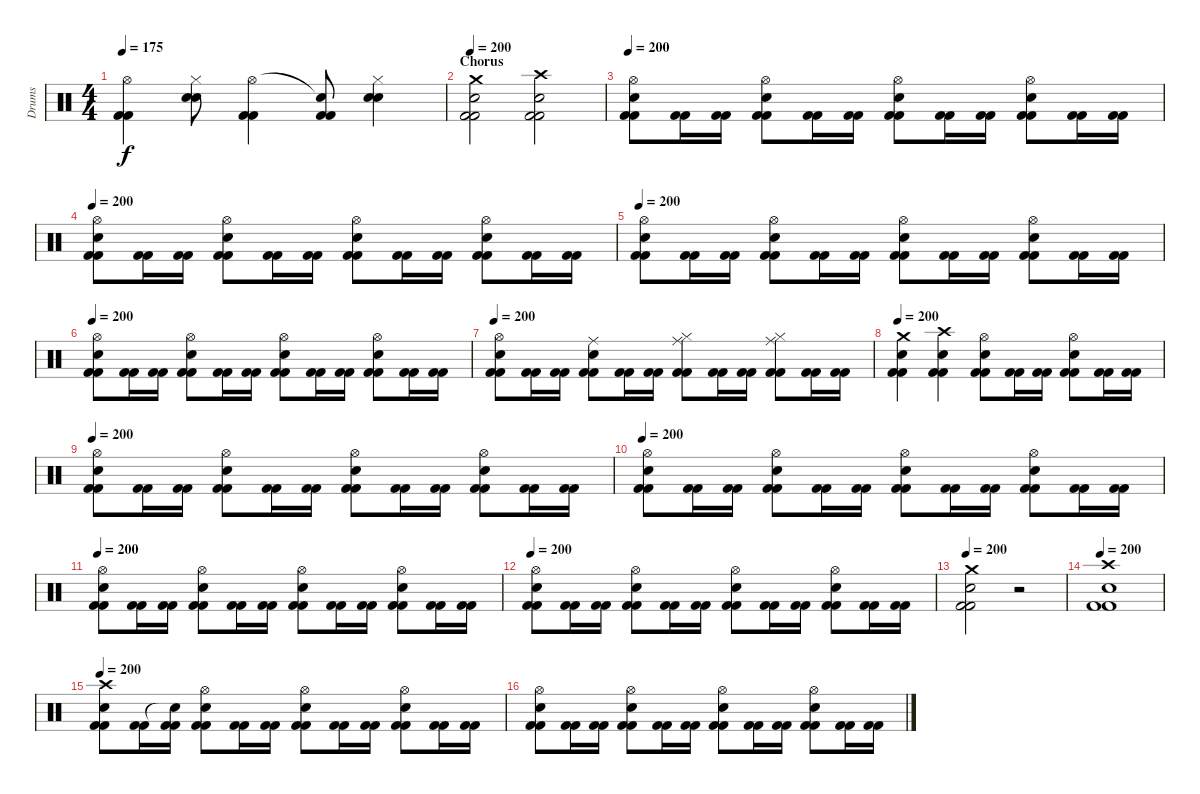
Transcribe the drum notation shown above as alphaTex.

\track ("Drums" "Drums") {instrument percussion}
\staff {score}
\articulation defaults
\ts (4 4)
\tempo 175
\clef neutral
\ks c
("Hi-Hat (open)" "Kick (hit) 2" "Kick (hit) 2").4{dy f} ("Hi-Hat (closed)" "Snare (hit) 2" "Snare (hit) 2").8 ("Hi-Hat (open)" "Kick (hit) 2" "Kick (hit) 2").4 ("Snare (hit)"{t} "Kick (hit) 2" "Kick (hit) 2").8 ("Hi-Hat (closed)" "Snare (hit) 2" "Snare (hit) 2").4 |
\section ("" "Chorus")
\tempo 200
("Crash medium (hit)" "Snare (hit) 2" "Kick (hit) 2" "Kick (hit) 2").2 ("Crash high (hit)" "Snare (hit) 2" "Kick (hit) 2" "Kick (hit) 2").2 |
\tempo 200
("Hi-Hat (open)" "Snare (hit) 2" "Kick (hit) 2" "Kick (hit) 2").8 ("Kick (hit) 2" "Kick (hit) 2").16 ("Kick (hit) 2" "Kick (hit) 2").16 ("Hi-Hat (open)" "Snare (hit) 2" "Kick (hit) 2" "Kick (hit) 2").8 ("Kick (hit) 2" "Kick (hit) 2").16 ("Kick (hit) 2" "Kick (hit) 2").16 ("Hi-Hat (open)" "Snare (hit) 2" "Kick (hit) 2" "Kick (hit) 2").8 ("Kick (hit) 2" "Kick (hit) 2").16 ("Kick (hit) 2" "Kick (hit) 2").16 ("Hi-Hat (open)" "Snare (hit) 2" "Kick (hit) 2" "Kick (hit) 2").8 ("Kick (hit) 2" "Kick (hit) 2").16 ("Kick (hit) 2" "Kick (hit) 2").16 |
\tempo 200
("Hi-Hat (open)" "Snare (hit) 2" "Kick (hit) 2" "Kick (hit) 2").8 ("Kick (hit) 2" "Kick (hit) 2").16 ("Kick (hit) 2" "Kick (hit) 2").16 ("Hi-Hat (open)" "Snare (hit) 2" "Kick (hit) 2" "Kick (hit) 2").8 ("Kick (hit) 2" "Kick (hit) 2").16 ("Kick (hit) 2" "Kick (hit) 2").16 ("Hi-Hat (open)" "Snare (hit) 2" "Kick (hit) 2" "Kick (hit) 2").8 ("Kick (hit) 2" "Kick (hit) 2").16 ("Kick (hit) 2" "Kick (hit) 2").16 ("Hi-Hat (open)" "Snare (hit) 2" "Kick (hit) 2" "Kick (hit) 2").8 ("Kick (hit) 2" "Kick (hit) 2").16 ("Kick (hit) 2" "Kick (hit) 2").16 |
\tempo 200
("Hi-Hat (open)" "Snare (hit) 2" "Kick (hit) 2" "Kick (hit) 2").8 ("Kick (hit) 2" "Kick (hit) 2").16 ("Kick (hit) 2" "Kick (hit) 2").16 ("Hi-Hat (open)" "Snare (hit) 2" "Kick (hit) 2" "Kick (hit) 2").8 ("Kick (hit) 2" "Kick (hit) 2").16 ("Kick (hit) 2" "Kick (hit) 2").16 ("Hi-Hat (open)" "Snare (hit) 2" "Kick (hit) 2" "Kick (hit) 2").8 ("Kick (hit) 2" "Kick (hit) 2").16 ("Kick (hit) 2" "Kick (hit) 2").16 ("Hi-Hat (open)" "Snare (hit) 2" "Kick (hit) 2" "Kick (hit) 2").8 ("Kick (hit) 2" "Kick (hit) 2").16 ("Kick (hit) 2" "Kick (hit) 2").16 |
\tempo 200
("Hi-Hat (open)" "Snare (hit) 2" "Kick (hit) 2" "Kick (hit) 2").8 ("Kick (hit) 2" "Kick (hit) 2").16 ("Kick (hit) 2" "Kick (hit) 2").16 ("Hi-Hat (open)" "Snare (hit) 2" "Kick (hit) 2" "Kick (hit) 2").8 ("Kick (hit) 2" "Kick (hit) 2").16 ("Kick (hit) 2" "Kick (hit) 2").16 ("Hi-Hat (open)" "Snare (hit) 2" "Kick (hit) 2" "Kick (hit) 2").8 ("Kick (hit) 2" "Kick (hit) 2").16 ("Kick (hit) 2" "Kick (hit) 2").16 ("Hi-Hat (open)" "Snare (hit) 2" "Kick (hit) 2" "Kick (hit) 2").8 ("Kick (hit) 2" "Kick (hit) 2").16 ("Kick (hit) 2" "Kick (hit) 2").16 |
\tempo 200
("Hi-Hat (open)" "Snare (hit) 2" "Kick (hit) 2" "Kick (hit) 2").8 ("Kick (hit) 2" "Kick (hit) 2").16 ("Kick (hit) 2" "Kick (hit) 2").16 ("Ride (middle)" "Snare (hit) 2" "Kick (hit) 2" "Kick (hit) 2").8 ("Kick (hit) 2" "Kick (hit) 2").16 ("Kick (hit) 2" "Kick (hit) 2").16 ("Ride (middle)" "Hi-Hat (closed)" "Kick (hit) 2" "Kick (hit) 2").8 ("Kick (hit) 2" "Kick (hit) 2").16 ("Kick (hit) 2" "Kick (hit) 2").16 ("Ride (middle)" "Hi-Hat (closed)" "Kick (hit) 2" "Kick (hit) 2").8 ("Kick (hit) 2" "Kick (hit) 2").16 ("Kick (hit) 2" "Kick (hit) 2").16 |
\tempo 200
("Crash medium (hit)" "Snare (hit) 2" "Kick (hit) 2" "Kick (hit) 2").4 ("Crash high (hit)" "Snare (hit) 2" "Kick (hit) 2" "Kick (hit) 2").4 ("Hi-Hat (open)" "Snare (hit) 2" "Kick (hit) 2" "Kick (hit) 2").8 ("Kick (hit) 2" "Kick (hit) 2").16 ("Kick (hit) 2" "Kick (hit) 2").16 ("Hi-Hat (open)" "Snare (hit) 2" "Kick (hit) 2" "Kick (hit) 2").8 ("Kick (hit) 2" "Kick (hit) 2").16 ("Kick (hit) 2" "Kick (hit) 2").16 |
\tempo 200
("Hi-Hat (open)" "Snare (hit) 2" "Kick (hit) 2" "Kick (hit) 2").8 ("Kick (hit) 2" "Kick (hit) 2").16 ("Kick (hit) 2" "Kick (hit) 2").16 ("Hi-Hat (open)" "Snare (hit) 2" "Kick (hit) 2" "Kick (hit) 2").8 ("Kick (hit) 2" "Kick (hit) 2").16 ("Kick (hit) 2" "Kick (hit) 2").16 ("Hi-Hat (open)" "Snare (hit) 2" "Kick (hit) 2" "Kick (hit) 2").8 ("Kick (hit) 2" "Kick (hit) 2").16 ("Kick (hit) 2" "Kick (hit) 2").16 ("Hi-Hat (open)" "Snare (hit) 2" "Kick (hit) 2" "Kick (hit) 2").8 ("Kick (hit) 2" "Kick (hit) 2").16 ("Kick (hit) 2" "Kick (hit) 2").16 |
\tempo 200
("Hi-Hat (open)" "Snare (hit) 2" "Kick (hit) 2" "Kick (hit) 2").8 ("Kick (hit) 2" "Kick (hit) 2").16 ("Kick (hit) 2" "Kick (hit) 2").16 ("Hi-Hat (open)" "Snare (hit) 2" "Kick (hit) 2" "Kick (hit) 2").8 ("Kick (hit) 2" "Kick (hit) 2").16 ("Kick (hit) 2" "Kick (hit) 2").16 ("Hi-Hat (open)" "Snare (hit) 2" "Kick (hit) 2" "Kick (hit) 2").8 ("Kick (hit) 2" "Kick (hit) 2").16 ("Kick (hit) 2" "Kick (hit) 2").16 ("Hi-Hat (open)" "Snare (hit) 2" "Kick (hit) 2" "Kick (hit) 2").8 ("Kick (hit) 2" "Kick (hit) 2").16 ("Kick (hit) 2" "Kick (hit) 2").16 |
\tempo 200
("Hi-Hat (open)" "Snare (hit) 2" "Kick (hit) 2" "Kick (hit) 2").8 ("Kick (hit) 2" "Kick (hit) 2").16 ("Kick (hit) 2" "Kick (hit) 2").16 ("Hi-Hat (open)" "Snare (hit) 2" "Kick (hit) 2" "Kick (hit) 2").8 ("Kick (hit) 2" "Kick (hit) 2").16 ("Kick (hit) 2" "Kick (hit) 2").16 ("Hi-Hat (open)" "Snare (hit) 2" "Kick (hit) 2" "Kick (hit) 2").8 ("Kick (hit) 2" "Kick (hit) 2").16 ("Kick (hit) 2" "Kick (hit) 2").16 ("Hi-Hat (open)" "Snare (hit) 2" "Kick (hit) 2" "Kick (hit) 2").8 ("Kick (hit) 2" "Kick (hit) 2").16 ("Kick (hit) 2" "Kick (hit) 2").16 |
\tempo 200
("Hi-Hat (open)" "Snare (hit) 2" "Kick (hit) 2" "Kick (hit) 2").8 ("Kick (hit) 2" "Kick (hit) 2").16 ("Kick (hit) 2" "Kick (hit) 2").16 ("Hi-Hat (open)" "Snare (hit) 2" "Kick (hit) 2" "Kick (hit) 2").8 ("Kick (hit) 2" "Kick (hit) 2").16 ("Kick (hit) 2" "Kick (hit) 2").16 ("Hi-Hat (open)" "Snare (hit) 2" "Kick (hit) 2" "Kick (hit) 2").8 ("Kick (hit) 2" "Kick (hit) 2").16 ("Kick (hit) 2" "Kick (hit) 2").16 ("Hi-Hat (open)" "Snare (hit) 2" "Kick (hit) 2" "Kick (hit) 2").8 ("Kick (hit) 2" "Kick (hit) 2").16 ("Kick (hit) 2" "Kick (hit) 2").16 |
\tempo 200
("Crash medium (hit)" "Snare (hit) 2" "Kick (hit) 2" "Kick (hit) 2").2 r.2 |
\tempo 200
("Crash high (hit)" "Snare (hit) 2" "Kick (hit) 2" "Kick (hit) 2").1 |
\tempo 200
("Crash high (hit)" "Snare (hit) 2" "Kick (hit) 2" "Kick (hit) 2").8 ("Kick (hit) 2" "Kick (hit) 2").16 ("Snare (hit)"{t} "Kick (hit) 2" "Kick (hit) 2").16 ("Hi-Hat (open)" "Snare (hit) 2" "Kick (hit) 2" "Kick (hit) 2").8 ("Kick (hit) 2" "Kick (hit) 2").16 ("Kick (hit) 2" "Kick (hit) 2").16 ("Hi-Hat (open)" "Snare (hit) 2" "Kick (hit) 2" "Kick (hit) 2").8 ("Kick (hit) 2" "Kick (hit) 2").16 ("Kick (hit) 2" "Kick (hit) 2").16 ("Hi-Hat (open)" "Snare (hit) 2" "Kick (hit) 2" "Kick (hit) 2").8 ("Kick (hit) 2" "Kick (hit) 2").16 ("Kick (hit) 2" "Kick (hit) 2").16 |
("Hi-Hat (open)" "Snare (hit) 2" "Kick (hit) 2" "Kick (hit) 2").8 ("Kick (hit) 2" "Kick (hit) 2").16 ("Kick (hit) 2" "Kick (hit) 2").16 ("Hi-Hat (open)" "Snare (hit) 2" "Kick (hit) 2" "Kick (hit) 2").8 ("Kick (hit) 2" "Kick (hit) 2").16 ("Kick (hit) 2" "Kick (hit) 2").16 ("Hi-Hat (open)" "Snare (hit) 2" "Kick (hit) 2" "Kick (hit) 2").8 ("Kick (hit) 2" "Kick (hit) 2").16 ("Kick (hit) 2" "Kick (hit) 2").16 ("Hi-Hat (open)" "Snare (hit) 2" "Kick (hit) 2" "Kick (hit) 2").8 ("Kick (hit) 2" "Kick (hit) 2").16 ("Kick (hit) 2" "Kick (hit) 2").16
